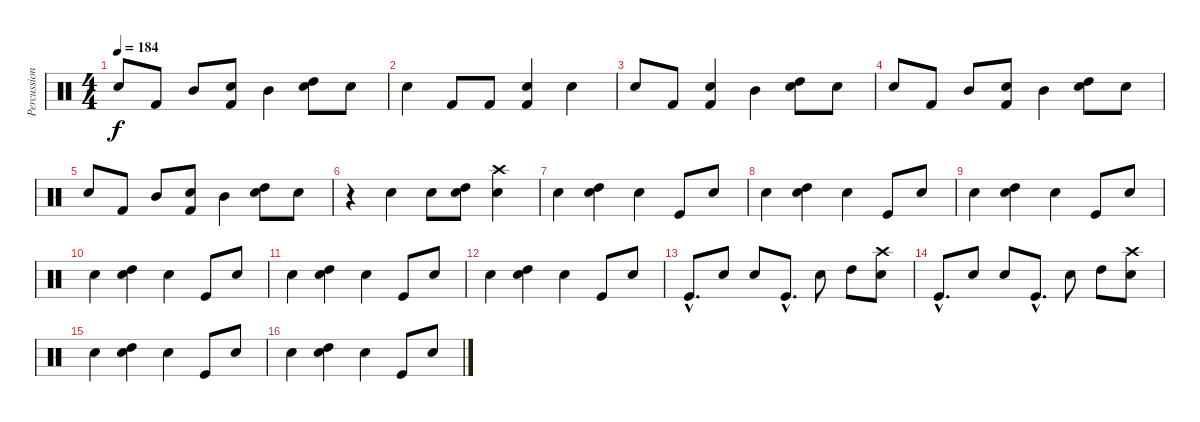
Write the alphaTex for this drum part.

\track ("Percussions" "Percussion") {instrument percussion}
\staff {score}
\articulation defaults
\ts (4 4)
\tempo 184
\clef neutral
\ks c "Metronome (bell)".8{dy f} "Kick (hit) 2".8 "Mid Tom (hit)".8
("Metronome (bell)" "Kick (hit) 2").8 "Mid Tom (hit)".4 ("Metronome (bell)" "High Tom (hit)").8 "Metronome (bell)".8 |
"Metronome (bell)".4 "Kick (hit) 2".8 "Kick (hit) 2".8 ("Metronome (bell)" "Kick (hit) 2").4 "Metronome (bell)".4 |
"Metronome (bell)".8 "Kick (hit) 2".8 ("Metronome (bell)" "Kick (hit) 2").4 "Mid Tom (hit)".4 ("Metronome (bell)" "High Tom (hit)").8 "Metronome (bell)".8 |
"Metronome (bell)".8 "Kick (hit) 2".8 "Mid Tom (hit)".8 ("Metronome (bell)" "Kick (hit) 2").8 "Mid Tom (hit)".4 ("Metronome (bell)" "High Tom (hit)").8 "Metronome (bell)".8 |
"Metronome (bell)".8 "Kick (hit) 2".8 "Mid Tom (hit)".8 ("Metronome (bell)" "Kick (hit) 2").8 "Mid Tom (hit)".4 ("Metronome (bell)" "High Tom (hit)").8 "Metronome (bell)".8 |
r.4 "Metronome (bell)".4 "Metronome (bell)".8 ("Metronome (bell)" "High Tom (hit)").8 ("Metronome (bell)" "Crash high (hit)").4 |
"Metronome (bell)".4 ("Metronome (bell)" "High Tom (hit)").4 "Metronome (bell)".4 "Kick (hit)".8 "Metronome (bell)".8 |
"Metronome (bell)".4 ("Metronome (bell)" "High Tom (hit)").4 "Metronome (bell)".4 "Kick (hit)".8 "Metronome (bell)".8 |
"Metronome (bell)".4 ("Metronome (bell)" "High Tom (hit)").4 "Metronome (bell)".4 "Kick (hit)".8 "Metronome (bell)".8 |
"Metronome (bell)".4 ("Metronome (bell)" "High Tom (hit)").4 "Metronome (bell)".4 "Kick (hit)".8 "Metronome (bell)".8 |
"Metronome (bell)".4 ("Metronome (bell)" "High Tom (hit)").4 "Metronome (bell)".4 "Kick (hit)".8 "Metronome (bell)".8 |
"Metronome (bell)".4 ("Metronome (bell)" "High Tom (hit)").4 "Metronome (bell)".4 "Kick (hit)".8 "Metronome (bell)".8 |
"Kick (hit)"{hac}.8{d} "Metronome (bell)".8 "Metronome (bell)".8 "Kick (hit)"{hac}.8{d} "Metronome (bell)".8 "High Tom (hit)".8 ("Metronome (bell)" "Crash high (hit)").8 |
"Kick (hit)"{hac}.8{d} "Metronome (bell)".8 "Metronome (bell)".8 "Kick (hit)"{hac}.8{d} "Metronome (bell)".8 "High Tom (hit)".8 ("Metronome (bell)" "Crash high (hit)").8 |
"Metronome (bell)".4 ("Metronome (bell)" "High Tom (hit)").4 "Metronome (bell)".4 "Kick (hit)".8 "Metronome (bell)".8 |
"Metronome (bell)".4 ("Metronome (bell)" "High Tom (hit)").4 "Metronome (bell)".4 "Kick (hit)".8 "Metronome (bell)".8
